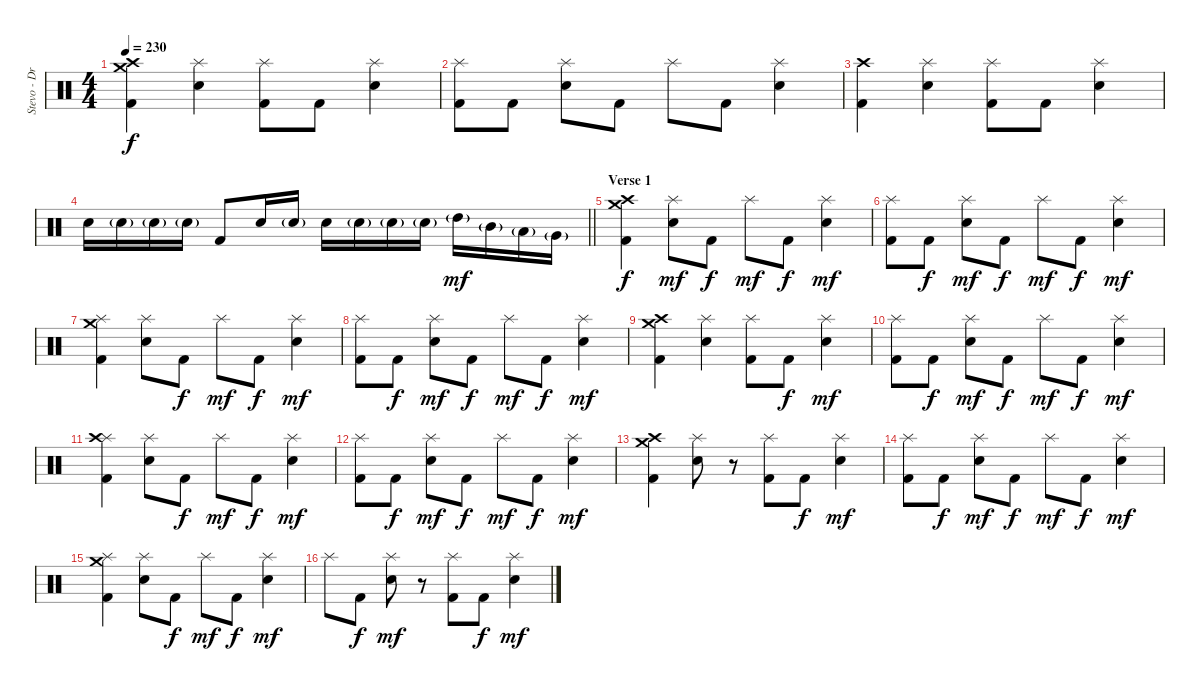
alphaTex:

\track ("Stevo - Drums" "Stevo - Dr") {instrument percussion}
\staff {score}
\articulation defaults
\ts (4 4)
\tempo 230
\clef neutral
\ks c
("Crash high (hit)" "Crash medium (hit)" "Kick (hit) 2").4{dy f} ("Splash (hit)" "Electric Snare (hit)").4 ("Splash (hit)" "Kick (hit) 2").8 "Kick (hit) 2".8 ("Splash (hit)" "Electric Snare (hit)").4 |
("Splash (hit)" "Kick (hit) 2").8 "Kick (hit) 2".8 ("Splash (hit)" "Electric Snare (hit)").8 "Kick (hit) 2".8 "Splash (hit)".8 "Kick (hit) 2".8 ("Splash (hit)" "Electric Snare (hit)").4 |
("Crash high (hit)" "Kick (hit) 2").4 ("Splash (hit)" "Electric Snare (hit)").4 ("Splash (hit)" "Kick (hit) 2").8 "Kick (hit) 2".8 ("Splash (hit)" "Electric Snare (hit)").4 |
\barLineRight lightlight "Electric Snare (hit)".16 "Electric Snare (hit)"{g}.16 "Electric Snare (hit)"{g}.16 "Electric Snare (hit)"{g}.16 "Kick (hit) 2".8 "Electric Snare (hit)".16 "Electric Snare (hit)"{g}.16 "Electric Snare (hit)".16 "Electric Snare (hit)"{g}.16 "Electric Snare (hit)"{g}.16 "Electric Snare (hit)"{g}.16 "High Tom (hit)"{g}.16{dy mf} "Mid Tom (hit)"{g}.16 "Low Tom (hit)"{g}.16 "Very Low Tom (hit)"{g}.16
|
\section ("" "Verse 1")
("Crash high (hit)" "Crash medium (hit)" "Kick (hit) 2").4{dy f} ("Splash (hit)" "Electric Snare (hit)").8{dy mf} "Kick (hit) 2".8{dy f} "Splash (hit)".8{dy mf} "Kick (hit) 2".8{dy f} ("Splash (hit)" "Electric Snare (hit)").4{dy mf} |
("Splash (hit)" "Kick (hit) 2").8 "Kick (hit) 2".8{dy f} ("Splash (hit)" "Electric Snare (hit)").8{dy mf} "Kick (hit) 2".8{dy f} "Splash (hit)".8{dy mf} "Kick (hit) 2".8{dy f} ("Splash (hit)" "Electric Snare (hit)").4{dy mf} |
("Splash (hit)" "Crash medium (hit)" "Kick (hit) 2").4 ("Splash (hit)" "Electric Snare (hit)").8 "Kick (hit) 2".8{dy f} "Splash (hit)".8{dy mf} "Kick (hit) 2".8{dy f} ("Splash (hit)" "Electric Snare (hit)").4{dy mf} |
("Splash (hit)" "Kick (hit) 2").8 "Kick (hit) 2".8{dy f} ("Splash (hit)" "Electric Snare (hit)").8{dy mf} "Kick (hit) 2".8{dy f} "Splash (hit)".8{dy mf} "Kick (hit) 2".8{dy f} ("Splash (hit)" "Electric Snare (hit)").4{dy mf} |
("Crash high (hit)" "Crash medium (hit)" "Kick (hit) 2").4 ("Splash (hit)" "Electric Snare (hit)").4 ("Splash (hit)" "Kick (hit) 2").8 "Kick (hit) 2".8{dy f} ("Splash (hit)" "Electric Snare (hit)").4{dy mf} |
("Splash (hit)" "Kick (hit) 2").8 "Kick (hit) 2".8{dy f} ("Splash (hit)" "Electric Snare (hit)").8{dy mf} "Kick (hit) 2".8{dy f} "Splash (hit)".8{dy mf} "Kick (hit) 2".8{dy f} ("Splash (hit)" "Electric Snare (hit)").4{dy mf} |
("Splash (hit)" "Crash high (hit)" "Kick (hit) 2").4 ("Splash (hit)" "Electric Snare (hit)").8 "Kick (hit) 2".8{dy f} "Splash (hit)".8{dy mf} "Kick (hit) 2".8{dy f} ("Splash (hit)" "Electric Snare (hit)").4{dy mf} |
("Splash (hit)" "Kick (hit) 2").8 "Kick (hit) 2".8{dy f} ("Splash (hit)" "Electric Snare (hit)").8{dy mf} "Kick (hit) 2".8{dy f} "Splash (hit)".8{dy mf} "Kick (hit) 2".8{dy f} ("Splash (hit)" "Electric Snare (hit)").4{dy mf} |
("Crash high (hit)" "Crash medium (hit)" "Kick (hit) 2").4 ("Splash (hit)" "Electric Snare (hit)").8 r.8 ("Splash (hit)" "Kick (hit) 2").8 "Kick (hit) 2".8{dy f} ("Splash (hit)" "Electric Snare (hit)").4{dy mf} |
("Splash (hit)" "Kick (hit) 2").8 "Kick (hit) 2".8{dy f} ("Splash (hit)" "Electric Snare (hit)").8{dy mf} "Kick (hit) 2".8{dy f} "Splash (hit)".8{dy mf} "Kick (hit) 2".8{dy f} ("Splash (hit)" "Electric Snare (hit)").4{dy mf} |
("Splash (hit)" "Crash medium (hit)" "Kick (hit) 2").4 ("Splash (hit)" "Electric Snare (hit)").8 "Kick (hit) 2".8{dy f} "Splash (hit)".8{dy mf} "Kick (hit) 2".8{dy f} ("Splash (hit)" "Electric Snare (hit)").4{dy mf} |
"Splash (hit)".8 "Kick (hit) 2".8{dy f} ("Splash (hit)" "Electric Snare (hit)").8{dy mf} r.8 ("Splash (hit)" "Kick (hit) 2").8 "Kick (hit) 2".8{dy f} ("Splash (hit)" "Electric Snare (hit)").4{dy mf}
